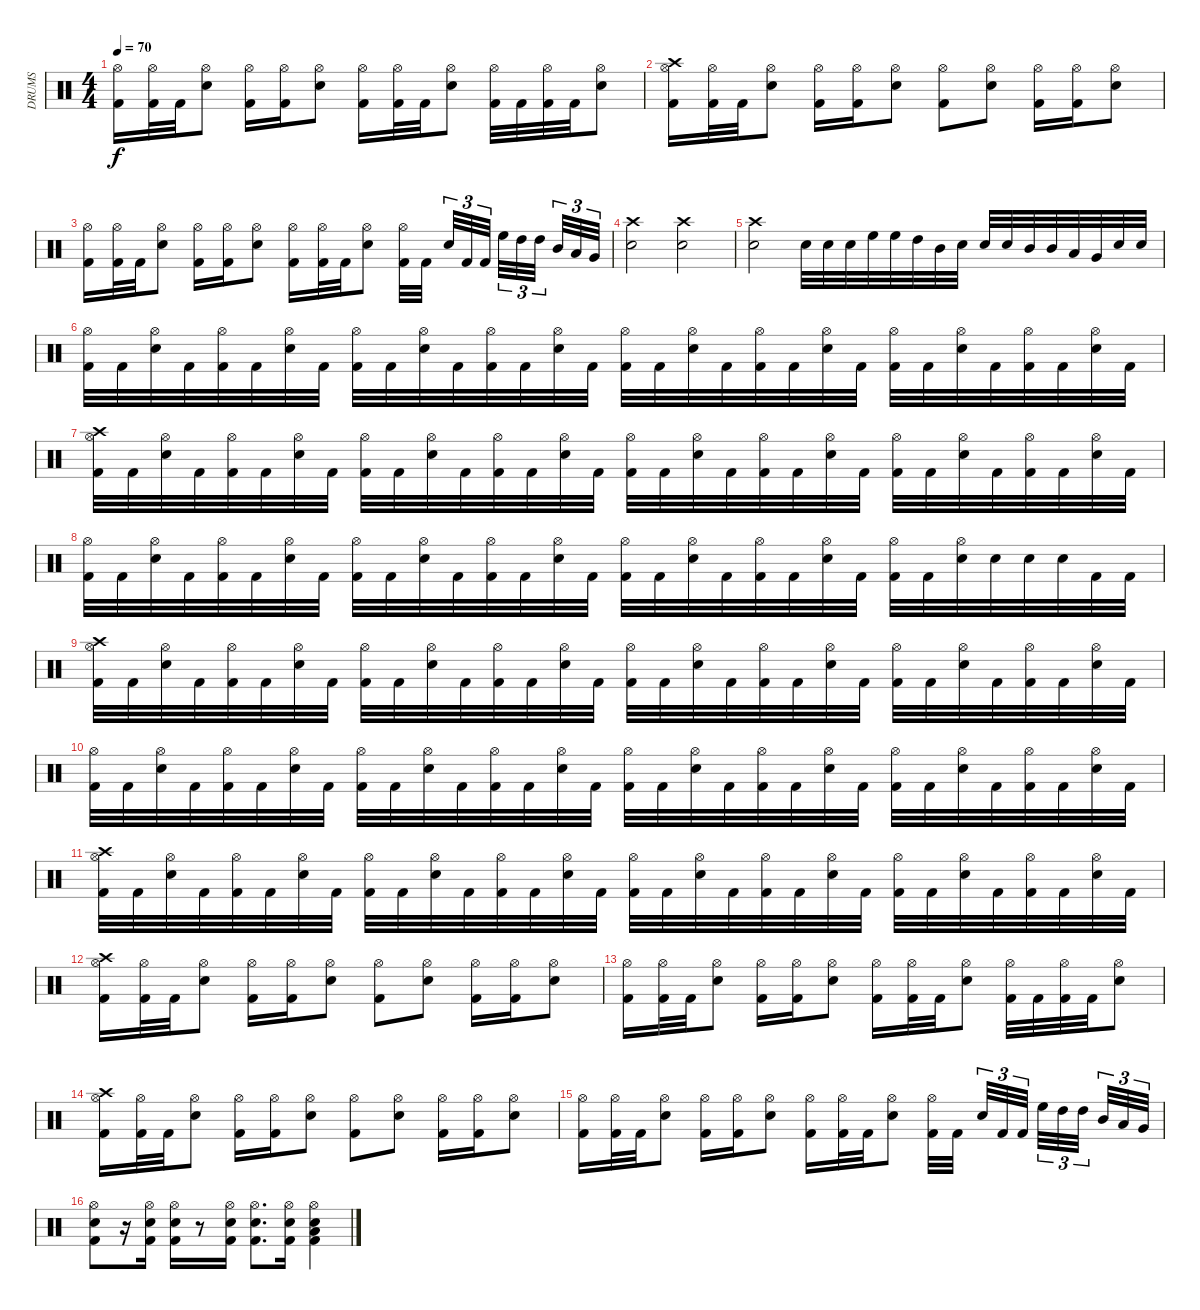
\track ("DRUMS" "DRUMS") {instrument percussion}
\staff {score}
\articulation defaults
\ts (4 4)
\tempo 70
\clef neutral
\ks c
("Hi-Hat (open)" "Kick (hit) 2").16{dy f} ("Hi-Hat (open)" "Kick (hit) 2").32 "Kick (hit) 2".32 ("Hi-Hat (open)" "Snare (hit) 2").8 ("Hi-Hat (open)" "Kick (hit) 2").16 ("Hi-Hat (open)" "Kick (hit) 2").16 ("Hi-Hat (open)" "Snare (hit) 2").8 ("Hi-Hat (open)" "Kick (hit) 2").16 ("Hi-Hat (open)" "Kick (hit) 2").32 "Kick (hit) 2".32 ("Hi-Hat (open)" "Snare (hit) 2").8 ("Hi-Hat (open)" "Kick (hit) 2").32 "Kick (hit) 2".32 ("Hi-Hat (open)" "Kick (hit) 2").32 "Kick (hit) 2".32 ("Hi-Hat (open)" "Snare (hit) 2").8 |
("Hi-Hat (open)" "Crash high (hit)" "Kick (hit) 2").16 ("Hi-Hat (open)" "Kick (hit) 2").32 "Kick (hit) 2".32 ("Hi-Hat (open)" "Snare (hit) 2").8 ("Hi-Hat (open)" "Kick (hit) 2").16 ("Hi-Hat (open)" "Kick (hit) 2").16 ("Hi-Hat (open)" "Snare (hit) 2").8 ("Hi-Hat (open)" "Kick (hit) 2").8 ("Hi-Hat (open)" "Snare (hit) 2").8 ("Hi-Hat (open)" "Kick (hit) 2").16 ("Hi-Hat (open)" "Kick (hit) 2").16 ("Hi-Hat (open)" "Snare (hit) 2").8 |
("Hi-Hat (open)" "Kick (hit) 2").16 ("Hi-Hat (open)" "Kick (hit) 2").32 "Kick (hit) 2".32 ("Hi-Hat (open)" "Snare (hit) 2").8 ("Hi-Hat (open)" "Kick (hit) 2").16 ("Hi-Hat (open)" "Kick (hit) 2").16 ("Hi-Hat (open)" "Snare (hit) 2").8 ("Hi-Hat (open)" "Kick (hit) 2").16 ("Hi-Hat (open)" "Kick (hit) 2").32 "Kick (hit) 2".32 ("Hi-Hat (open)" "Snare (hit) 2").8 ("Hi-Hat (open)" "Kick (hit) 2").32 "Kick (hit) 2".32{beam splitsecondary} "Snare (hit) 2".32{tu (3 2)} "Kick (hit) 2".32{tu (3 2)} "Kick (hit) 2".32{tu (3 2) beam splitsecondary} "High Floor Tom (hit)".32{tu (3 2)} "High Tom (hit)".32{tu (3 2)} "High Tom (hit)".32{tu (3 2) beam splitsecondary} "Mid Tom (hit)".32{tu (3 2)} "Low Tom (hit)".32{tu (3 2)} "Very Low Tom (hit)".32{tu (3 2)} |
("Crash high (hit)" "Snare (hit) 2").2 ("Crash high (hit)" "Snare (hit) 2").2 |
("Crash high (hit)" "Snare (hit) 2").2 "Snare (hit) 2".32 "Snare (hit) 2".32 "Snare (hit) 2".32 "High Floor Tom (hit)".32 "High Floor Tom (hit)".32 "High Tom (hit)".32 "Mid Tom (hit)".32 "Snare (hit) 2".32 "Snare (hit) 2".32 "Snare (hit) 2".32 "Mid Tom (hit)".32 "Mid Tom (hit)".32 "Low Tom (hit)".32 "Very Low Tom (hit)".32 "Snare (hit) 2".32 "Snare (hit) 2".32 |
("Hi-Hat (open)" "Kick (hit) 2").32 "Kick (hit) 2".32 ("Hi-Hat (open)" "Snare (hit) 2").32 "Kick (hit) 2".32 ("Hi-Hat (open)" "Kick (hit) 2").32 "Kick (hit) 2".32 ("Hi-Hat (open)" "Snare (hit) 2").32 "Kick (hit) 2".32 ("Hi-Hat (open)" "Kick (hit) 2").32 "Kick (hit) 2".32 ("Hi-Hat (open)" "Snare (hit) 2").32 "Kick (hit) 2".32 ("Hi-Hat (open)" "Kick (hit) 2").32 "Kick (hit) 2".32 ("Hi-Hat (open)" "Snare (hit) 2").32 "Kick (hit) 2".32 ("Hi-Hat (open)" "Kick (hit) 2").32 "Kick (hit) 2".32 ("Hi-Hat (open)" "Snare (hit) 2").32 "Kick (hit) 2".32 ("Hi-Hat (open)" "Kick (hit) 2").32 "Kick (hit) 2".32 ("Hi-Hat (open)" "Snare (hit) 2").32 "Kick (hit) 2".32 ("Hi-Hat (open)" "Kick (hit) 2").32 "Kick (hit) 2".32 ("Hi-Hat (open)" "Snare (hit) 2").32 "Kick (hit) 2".32 ("Hi-Hat (open)" "Kick (hit) 2").32 "Kick (hit) 2".32 ("Hi-Hat (open)" "Snare (hit) 2").32 "Kick (hit) 2".32 |
("Hi-Hat (open)" "Crash high (hit)" "Kick (hit) 2").32 "Kick (hit) 2".32 ("Hi-Hat (open)" "Snare (hit) 2").32 "Kick (hit) 2".32 ("Hi-Hat (open)" "Kick (hit) 2").32 "Kick (hit) 2".32 ("Hi-Hat (open)" "Snare (hit) 2").32 "Kick (hit) 2".32 ("Hi-Hat (open)" "Kick (hit) 2").32 "Kick (hit) 2".32 ("Hi-Hat (open)" "Snare (hit) 2").32 "Kick (hit) 2".32 ("Hi-Hat (open)" "Kick (hit) 2").32 "Kick (hit) 2".32 ("Hi-Hat (open)" "Snare (hit) 2").32 "Kick (hit) 2".32 ("Hi-Hat (open)" "Kick (hit) 2").32 "Kick (hit) 2".32 ("Hi-Hat (open)" "Snare (hit) 2").32 "Kick (hit) 2".32 ("Hi-Hat (open)" "Kick (hit) 2").32 "Kick (hit) 2".32 ("Hi-Hat (open)" "Snare (hit) 2").32 "Kick (hit) 2".32 ("Hi-Hat (open)" "Kick (hit) 2").32 "Kick (hit) 2".32 ("Hi-Hat (open)" "Snare (hit) 2").32 "Kick (hit) 2".32 ("Hi-Hat (open)" "Kick (hit) 2").32 "Kick (hit) 2".32 ("Hi-Hat (open)" "Snare (hit) 2").32 "Kick (hit) 2".32 |
("Hi-Hat (open)" "Kick (hit) 2").32 "Kick (hit) 2".32 ("Hi-Hat (open)" "Snare (hit) 2").32 "Kick (hit) 2".32 ("Hi-Hat (open)" "Kick (hit) 2").32 "Kick (hit) 2".32 ("Hi-Hat (open)" "Snare (hit) 2").32 "Kick (hit) 2".32 ("Hi-Hat (open)" "Kick (hit) 2").32 "Kick (hit) 2".32 ("Hi-Hat (open)" "Snare (hit) 2").32 "Kick (hit) 2".32 ("Hi-Hat (open)" "Kick (hit) 2").32 "Kick (hit) 2".32 ("Hi-Hat (open)" "Snare (hit) 2").32 "Kick (hit) 2".32 ("Hi-Hat (open)" "Kick (hit) 2").32 "Kick (hit) 2".32 ("Hi-Hat (open)" "Snare (hit) 2").32 "Kick (hit) 2".32 ("Hi-Hat (open)" "Kick (hit) 2").32 "Kick (hit) 2".32 ("Hi-Hat (open)" "Snare (hit) 2").32 "Kick (hit) 2".32 ("Hi-Hat (open)" "Kick (hit) 2").32 "Kick (hit) 2".32 ("Hi-Hat (open)" "Snare (hit) 2").32 "Snare (hit) 2".32 "Snare (hit) 2".32 "Snare (hit) 2".32 "Kick (hit) 2".32 "Kick (hit) 2".32 |
("Hi-Hat (open)" "Crash high (hit)" "Kick (hit) 2").32 "Kick (hit) 2".32 ("Hi-Hat (open)" "Snare (hit) 2").32 "Kick (hit) 2".32 ("Hi-Hat (open)" "Kick (hit) 2").32 "Kick (hit) 2".32 ("Hi-Hat (open)" "Snare (hit) 2").32 "Kick (hit) 2".32 ("Hi-Hat (open)" "Kick (hit) 2").32 "Kick (hit) 2".32 ("Hi-Hat (open)" "Snare (hit) 2").32 "Kick (hit) 2".32 ("Hi-Hat (open)" "Kick (hit) 2").32 "Kick (hit) 2".32 ("Hi-Hat (open)" "Snare (hit) 2").32 "Kick (hit) 2".32 ("Hi-Hat (open)" "Kick (hit) 2").32 "Kick (hit) 2".32 ("Hi-Hat (open)" "Snare (hit) 2").32 "Kick (hit) 2".32 ("Hi-Hat (open)" "Kick (hit) 2").32 "Kick (hit) 2".32 ("Hi-Hat (open)" "Snare (hit) 2").32 "Kick (hit) 2".32 ("Hi-Hat (open)" "Kick (hit) 2").32 "Kick (hit) 2".32 ("Hi-Hat (open)" "Snare (hit) 2").32 "Kick (hit) 2".32 ("Hi-Hat (open)" "Kick (hit) 2").32 "Kick (hit) 2".32 ("Hi-Hat (open)" "Snare (hit) 2").32 "Kick (hit) 2".32 |
("Hi-Hat (open)" "Kick (hit) 2").32 "Kick (hit) 2".32 ("Hi-Hat (open)" "Snare (hit) 2").32 "Kick (hit) 2".32 ("Hi-Hat (open)" "Kick (hit) 2").32 "Kick (hit) 2".32 ("Hi-Hat (open)" "Snare (hit) 2").32 "Kick (hit) 2".32 ("Hi-Hat (open)" "Kick (hit) 2").32 "Kick (hit) 2".32 ("Hi-Hat (open)" "Snare (hit) 2").32 "Kick (hit) 2".32 ("Hi-Hat (open)" "Kick (hit) 2").32 "Kick (hit) 2".32 ("Hi-Hat (open)" "Snare (hit) 2").32 "Kick (hit) 2".32 ("Hi-Hat (open)" "Kick (hit) 2").32 "Kick (hit) 2".32 ("Hi-Hat (open)" "Snare (hit) 2").32 "Kick (hit) 2".32 ("Hi-Hat (open)" "Kick (hit) 2").32 "Kick (hit) 2".32 ("Hi-Hat (open)" "Snare (hit) 2").32 "Kick (hit) 2".32 ("Hi-Hat (open)" "Kick (hit) 2").32 "Kick (hit) 2".32 ("Hi-Hat (open)" "Snare (hit) 2").32 "Kick (hit) 2".32 ("Hi-Hat (open)" "Kick (hit) 2").32 "Kick (hit) 2".32 ("Hi-Hat (open)" "Snare (hit) 2").32 "Kick (hit) 2".32 |
("Hi-Hat (open)" "Crash high (hit)" "Kick (hit) 2").32 "Kick (hit) 2".32 ("Hi-Hat (open)" "Snare (hit) 2").32 "Kick (hit) 2".32 ("Hi-Hat (open)" "Kick (hit) 2").32 "Kick (hit) 2".32 ("Hi-Hat (open)" "Snare (hit) 2").32 "Kick (hit) 2".32 ("Hi-Hat (open)" "Kick (hit) 2").32 "Kick (hit) 2".32 ("Hi-Hat (open)" "Snare (hit) 2").32 "Kick (hit) 2".32 ("Hi-Hat (open)" "Kick (hit) 2").32 "Kick (hit) 2".32 ("Hi-Hat (open)" "Snare (hit) 2").32 "Kick (hit) 2".32 ("Hi-Hat (open)" "Kick (hit) 2").32 "Kick (hit) 2".32 ("Hi-Hat (open)" "Snare (hit) 2").32 "Kick (hit) 2".32 ("Hi-Hat (open)" "Kick (hit) 2").32 "Kick (hit) 2".32 ("Hi-Hat (open)" "Snare (hit) 2").32 "Kick (hit) 2".32 ("Hi-Hat (open)" "Kick (hit) 2").32 "Kick (hit) 2".32 ("Hi-Hat (open)" "Snare (hit) 2").32 "Kick (hit) 2".32 ("Hi-Hat (open)" "Kick (hit) 2").32 "Kick (hit) 2".32 ("Hi-Hat (open)" "Snare (hit) 2").32 "Kick (hit) 2".32 |
("Hi-Hat (open)" "Crash high (hit)" "Kick (hit) 2").16 ("Hi-Hat (open)" "Kick (hit) 2").32 "Kick (hit) 2".32 ("Hi-Hat (open)" "Snare (hit) 2").8 ("Hi-Hat (open)" "Kick (hit) 2").16 ("Hi-Hat (open)" "Kick (hit) 2").16 ("Hi-Hat (open)" "Snare (hit) 2").8 ("Hi-Hat (open)" "Kick (hit) 2").8 ("Hi-Hat (open)" "Snare (hit) 2").8 ("Hi-Hat (open)" "Kick (hit) 2").16 ("Hi-Hat (open)" "Kick (hit) 2").16 ("Hi-Hat (open)" "Snare (hit) 2").8 |
("Hi-Hat (open)" "Kick (hit) 2").16 ("Hi-Hat (open)" "Kick (hit) 2").32 "Kick (hit) 2".32 ("Hi-Hat (open)" "Snare (hit) 2").8 ("Hi-Hat (open)" "Kick (hit) 2").16 ("Hi-Hat (open)" "Kick (hit) 2").16 ("Hi-Hat (open)" "Snare (hit) 2").8 ("Hi-Hat (open)" "Kick (hit) 2").16 ("Hi-Hat (open)" "Kick (hit) 2").32 "Kick (hit) 2".32 ("Hi-Hat (open)" "Snare (hit) 2").8 ("Hi-Hat (open)" "Kick (hit) 2").32 "Kick (hit) 2".32 ("Hi-Hat (open)" "Kick (hit) 2").32 "Kick (hit) 2".32 ("Hi-Hat (open)" "Snare (hit) 2").8 |
("Hi-Hat (open)" "Crash high (hit)" "Kick (hit) 2").16 ("Hi-Hat (open)" "Kick (hit) 2").32 "Kick (hit) 2".32 ("Hi-Hat (open)" "Snare (hit) 2").8 ("Hi-Hat (open)" "Kick (hit) 2").16 ("Hi-Hat (open)" "Kick (hit) 2").16 ("Hi-Hat (open)" "Snare (hit) 2").8 ("Hi-Hat (open)" "Kick (hit) 2").8 ("Hi-Hat (open)" "Snare (hit) 2").8 ("Hi-Hat (open)" "Kick (hit) 2").16 ("Hi-Hat (open)" "Kick (hit) 2").16 ("Hi-Hat (open)" "Snare (hit) 2").8 |
("Hi-Hat (open)" "Kick (hit) 2").16 ("Hi-Hat (open)" "Kick (hit) 2").32 "Kick (hit) 2".32 ("Hi-Hat (open)" "Snare (hit) 2").8 ("Hi-Hat (open)" "Kick (hit) 2").16 ("Hi-Hat (open)" "Kick (hit) 2").16 ("Hi-Hat (open)" "Snare (hit) 2").8 ("Hi-Hat (open)" "Kick (hit) 2").16 ("Hi-Hat (open)" "Kick (hit) 2").32 "Kick (hit) 2".32 ("Hi-Hat (open)" "Snare (hit) 2").8 ("Hi-Hat (open)" "Kick (hit) 2").32 "Kick (hit) 2".32{beam splitsecondary} "Snare (hit) 2".32{tu (3 2)} "Kick (hit) 2".32{tu (3 2)} "Kick (hit) 2".32{tu (3 2) beam splitsecondary} "High Floor Tom (hit)".32{tu (3 2)} "High Tom (hit)".32{tu (3 2)} "High Tom (hit)".32{tu (3 2) beam splitsecondary} "Mid Tom (hit)".32{tu (3 2)} "Low Tom (hit)".32{tu (3 2)} "Very Low Tom (hit)".32{tu (3 2)} |
("Hi-Hat (open)" "Snare (hit) 2" "Kick (hit) 2").8 r.16 ("Hi-Hat (open)" "Snare (hit) 2" "Kick (hit) 2").16 ("Hi-Hat (open)" "Snare (hit) 2" "Kick (hit) 2").16 r.8 ("Hi-Hat (open)" "Snare (hit) 2" "Kick (hit) 2").16 ("Hi-Hat (open)" "Snare (hit) 2" "Kick (hit) 2").8{d} ("Hi-Hat (open)" "Snare (hit) 2" "Kick (hit) 2").16 ("Hi-Hat (open)" "Low Tom (hit)" "Snare (hit) 2" "Kick (hit) 2").4
